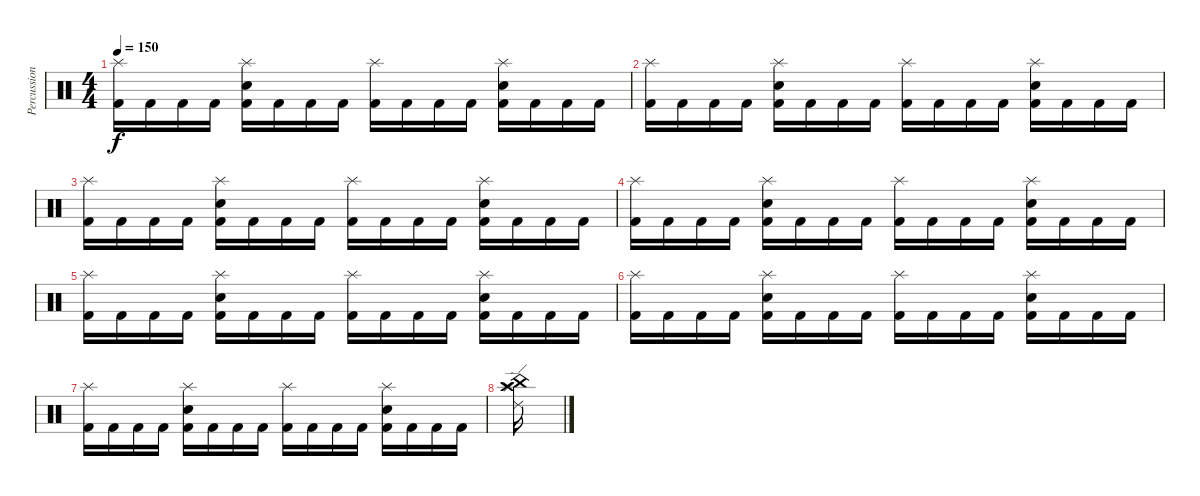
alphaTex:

\track ("Percussion" "Percussion") {instrument percussion}
\staff {score}
\articulation defaults
\ts (4 4)
\tempo 150
\clef neutral
\ks c
("Splash (hit)" "Kick (hit) 2").16{dy f} "Kick (hit) 2".16 "Kick (hit) 2".16 "Kick (hit) 2".16 ("Electric Snare (hit)" "Splash (hit)" "Kick (hit) 2").16 "Kick (hit) 2".16 "Kick (hit) 2".16 "Kick (hit) 2".16 ("Splash (hit)" "Kick (hit) 2").16 "Kick (hit) 2".16 "Kick (hit) 2".16 "Kick (hit) 2".16 ("Electric Snare (hit)" "Splash (hit)" "Kick (hit) 2").16 "Kick (hit) 2".16 "Kick (hit) 2".16 "Kick (hit) 2".16 |
("Splash (hit)" "Kick (hit) 2").16 "Kick (hit) 2".16 "Kick (hit) 2".16 "Kick (hit) 2".16 ("Electric Snare (hit)" "Splash (hit)" "Kick (hit) 2").16 "Kick (hit) 2".16 "Kick (hit) 2".16 "Kick (hit) 2".16 ("Splash (hit)" "Kick (hit) 2").16 "Kick (hit) 2".16 "Kick (hit) 2".16 "Kick (hit) 2".16 ("Electric Snare (hit)" "Splash (hit)" "Kick (hit) 2").16 "Kick (hit) 2".16 "Kick (hit) 2".16 "Kick (hit) 2".16 |
("Splash (hit)" "Kick (hit) 2").16 "Kick (hit) 2".16 "Kick (hit) 2".16 "Kick (hit) 2".16 ("Electric Snare (hit)" "Splash (hit)" "Kick (hit) 2").16 "Kick (hit) 2".16 "Kick (hit) 2".16 "Kick (hit) 2".16 ("Splash (hit)" "Kick (hit) 2").16 "Kick (hit) 2".16 "Kick (hit) 2".16 "Kick (hit) 2".16 ("Electric Snare (hit)" "Splash (hit)" "Kick (hit) 2").16 "Kick (hit) 2".16 "Kick (hit) 2".16 "Kick (hit) 2".16 |
("Splash (hit)" "Kick (hit) 2").16 "Kick (hit) 2".16 "Kick (hit) 2".16 "Kick (hit) 2".16 ("Electric Snare (hit)" "Splash (hit)" "Kick (hit) 2").16 "Kick (hit) 2".16 "Kick (hit) 2".16 "Kick (hit) 2".16 ("Splash (hit)" "Kick (hit) 2").16 "Kick (hit) 2".16 "Kick (hit) 2".16 "Kick (hit) 2".16 ("Electric Snare (hit)" "Splash (hit)" "Kick (hit) 2").16 "Kick (hit) 2".16 "Kick (hit) 2".16 "Kick (hit) 2".16 |
("Splash (hit)" "Kick (hit) 2").16 "Kick (hit) 2".16 "Kick (hit) 2".16 "Kick (hit) 2".16 ("Electric Snare (hit)" "Splash (hit)" "Kick (hit) 2").16 "Kick (hit) 2".16 "Kick (hit) 2".16 "Kick (hit) 2".16 ("Splash (hit)" "Kick (hit) 2").16 "Kick (hit) 2".16 "Kick (hit) 2".16 "Kick (hit) 2".16 ("Electric Snare (hit)" "Splash (hit)" "Kick (hit) 2").16 "Kick (hit) 2".16 "Kick (hit) 2".16 "Kick (hit) 2".16 |
("Splash (hit)" "Kick (hit) 2").16 "Kick (hit) 2".16 "Kick (hit) 2".16 "Kick (hit) 2".16 ("Electric Snare (hit)" "Splash (hit)" "Kick (hit) 2").16 "Kick (hit) 2".16 "Kick (hit) 2".16 "Kick (hit) 2".16 ("Splash (hit)" "Kick (hit) 2").16 "Kick (hit) 2".16 "Kick (hit) 2".16 "Kick (hit) 2".16 ("Electric Snare (hit)" "Splash (hit)" "Kick (hit) 2").16 "Kick (hit) 2".16 "Kick (hit) 2".16 "Kick (hit) 2".16 |
("Splash (hit)" "Kick (hit) 2").16 "Kick (hit) 2".16 "Kick (hit) 2".16 "Kick (hit) 2".16 ("Electric Snare (hit)" "Splash (hit)" "Kick (hit) 2").16 "Kick (hit) 2".16 "Kick (hit) 2".16 "Kick (hit) 2".16 ("Splash (hit)" "Kick (hit) 2").16 "Kick (hit) 2".16 "Kick (hit) 2".16 "Kick (hit) 2".16 ("Electric Snare (hit)" "Splash (hit)" "Kick (hit) 2").16 "Kick (hit) 2".16 "Kick (hit) 2".16 "Kick (hit) 2".16 |
("Crash high (hit)" "Ride (edge) 2" "Splash (hit)" "China (hit)").16
